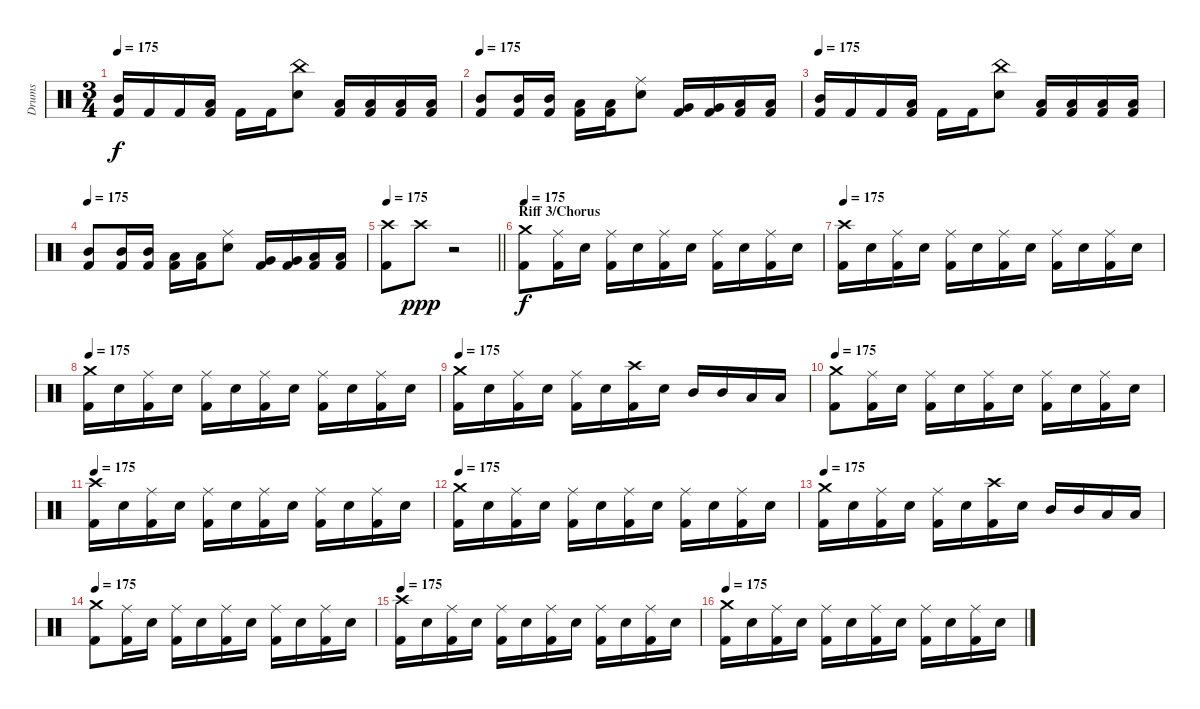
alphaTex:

\track ("Drums" "Drums") {instrument percussion}
\staff {score}
\articulation defaults
\ts (3 4)
\tempo 175
\clef neutral
\ks c
("Mid Tom (hit)" "Kick (hit) 2").16{dy f} "Kick (hit) 2".16 "Kick (hit) 2".16 ("Low Tom (hit)" "Kick (hit) 2").16 "Kick (hit) 2".16 "Kick (hit) 2".16 ("China (hit)" "Electric Snare (hit)").8 ("Low Tom (hit)" "Kick (hit) 2").16 ("Low Tom (hit)" "Kick (hit) 2").16 ("Low Tom (hit)" "Kick (hit) 2").16 ("Low Tom (hit)" "Kick (hit) 2").16 |
\tempo 175
("Mid Tom (hit)" "Kick (hit) 2").8 ("Mid Tom (hit)" "Kick (hit) 2").16 ("Mid Tom (hit)" "Kick (hit) 2").16 ("Low Tom (hit)" "Kick (hit) 2").16 ("Low Tom (hit)" "Kick (hit) 2").16 ("Ride (middle)" "Electric Snare (hit)").8 ("Very Low Tom (hit)" "Kick (hit) 2").16 ("Very Low Tom (hit)" "Kick (hit) 2").16 ("Low Tom (hit)" "Kick (hit) 2").16 ("Low Tom (hit)" "Kick (hit) 2").16 |
\tempo 175
("Mid Tom (hit)" "Kick (hit) 2").16 "Kick (hit) 2".16 "Kick (hit) 2".16 ("Low Tom (hit)" "Kick (hit) 2").16 "Kick (hit) 2".16 "Kick (hit) 2".16 ("China (hit)" "Electric Snare (hit)").8 ("Low Tom (hit)" "Kick (hit) 2").16 ("Low Tom (hit)" "Kick (hit) 2").16 ("Low Tom (hit)" "Kick (hit) 2").16 ("Low Tom (hit)" "Kick (hit) 2").16 |
\tempo 175
("Mid Tom (hit)" "Kick (hit) 2").8 ("Mid Tom (hit)" "Kick (hit) 2").16 ("Mid Tom (hit)" "Kick (hit) 2").16 ("Low Tom (hit)" "Kick (hit) 2").16 ("Low Tom (hit)" "Kick (hit) 2").16 ("Ride (middle)" "Electric Snare (hit)").8 ("Very Low Tom (hit)" "Kick (hit) 2").16 ("Very Low Tom (hit)" "Kick (hit) 2").16 ("Low Tom (hit)" "Kick (hit) 2").16 ("Low Tom (hit)" "Kick (hit) 2").16 |
\tempo 175
\barLineRight lightlight
("Crash high (hit)" "Kick (hit) 2").8 "Crash high (hit)".8{dy ppp} r.2 |
\section ("" "Riff 3/Chorus")
\tempo 175
("Crash medium (hit)" "Kick (hit) 2").8{dy f} ("Ride (middle)" "Kick (hit) 2").16 "Electric Snare (hit)".16 ("Ride (middle)" "Kick (hit) 2").16 "Electric Snare (hit)".16 ("Ride (middle)" "Kick (hit) 2").16 "Electric Snare (hit)".16 ("Ride (middle)" "Kick (hit) 2").16 "Electric Snare (hit)".16 ("Ride (middle)" "Kick (hit) 2").16 "Electric Snare (hit)".16 |
\tempo 175
("Crash high (hit)" "Kick (hit) 2").16 "Electric Snare (hit)".16 ("Ride (middle)" "Kick (hit) 2").16 "Electric Snare (hit)".16 ("Ride (middle)" "Kick (hit) 2").16 "Electric Snare (hit)".16 ("Ride (middle)" "Kick (hit) 2").16 "Electric Snare (hit)".16 ("Ride (middle)" "Kick (hit) 2").16 "Electric Snare (hit)".16 ("Ride (middle)" "Kick (hit) 2").16 "Electric Snare (hit)".16 |
\tempo 175
("Crash medium (hit)" "Kick (hit) 2").16 "Electric Snare (hit)".16 ("Ride (middle)" "Kick (hit) 2").16 "Electric Snare (hit)".16 ("Ride (middle)" "Kick (hit) 2").16 "Electric Snare (hit)".16 ("Ride (middle)" "Kick (hit) 2").16 "Electric Snare (hit)".16 ("Ride (middle)" "Kick (hit) 2").16 "Electric Snare (hit)".16 ("Ride (middle)" "Kick (hit) 2").16 "Electric Snare (hit)".16 |
\tempo 175
("Crash medium (hit)" "Kick (hit) 2").16 "Electric Snare (hit)".16 ("Ride (middle)" "Kick (hit) 2").16 "Electric Snare (hit)".16 ("Ride (middle)" "Kick (hit) 2").16 "Electric Snare (hit)".16 ("Crash high (hit)" "Kick (hit) 2").16 "Electric Snare (hit)".16 "Mid Tom (hit)".16 "Mid Tom (hit)".16 "Low Tom (hit)".16 "Low Tom (hit)".16 |
\tempo 175
("Crash medium (hit)" "Kick (hit) 2").8 ("Ride (middle)" "Kick (hit) 2").16 "Electric Snare (hit)".16 ("Ride (middle)" "Kick (hit) 2").16 "Electric Snare (hit)".16 ("Ride (middle)" "Kick (hit) 2").16 "Electric Snare (hit)".16 ("Ride (middle)" "Kick (hit) 2").16 "Electric Snare (hit)".16 ("Ride (middle)" "Kick (hit) 2").16 "Electric Snare (hit)".16 |
\tempo 175
("Crash high (hit)" "Kick (hit) 2").16 "Electric Snare (hit)".16 ("Ride (middle)" "Kick (hit) 2").16 "Electric Snare (hit)".16 ("Ride (middle)" "Kick (hit) 2").16 "Electric Snare (hit)".16 ("Ride (middle)" "Kick (hit) 2").16 "Electric Snare (hit)".16 ("Ride (middle)" "Kick (hit) 2").16 "Electric Snare (hit)".16 ("Ride (middle)" "Kick (hit) 2").16 "Electric Snare (hit)".16 |
\tempo 175
("Crash medium (hit)" "Kick (hit) 2").16 "Electric Snare (hit)".16 ("Ride (middle)" "Kick (hit) 2").16 "Electric Snare (hit)".16 ("Ride (middle)" "Kick (hit) 2").16 "Electric Snare (hit)".16 ("Ride (middle)" "Kick (hit) 2").16 "Electric Snare (hit)".16 ("Ride (middle)" "Kick (hit) 2").16 "Electric Snare (hit)".16 ("Ride (middle)" "Kick (hit) 2").16 "Electric Snare (hit)".16 |
\tempo 175
("Crash medium (hit)" "Kick (hit) 2").16 "Electric Snare (hit)".16 ("Ride (middle)" "Kick (hit) 2").16 "Electric Snare (hit)".16 ("Ride (middle)" "Kick (hit) 2").16 "Electric Snare (hit)".16 ("Crash high (hit)" "Kick (hit) 2").16 "Electric Snare (hit)".16 "Mid Tom (hit)".16 "Mid Tom (hit)".16 "Low Tom (hit)".16 "Low Tom (hit)".16 |
\tempo 175
("Crash medium (hit)" "Kick (hit) 2").8 ("Ride (middle)" "Kick (hit) 2").16 "Electric Snare (hit)".16 ("Ride (middle)" "Kick (hit) 2").16 "Electric Snare (hit)".16 ("Ride (middle)" "Kick (hit) 2").16 "Electric Snare (hit)".16 ("Ride (middle)" "Kick (hit) 2").16 "Electric Snare (hit)".16 ("Ride (middle)" "Kick (hit) 2").16 "Electric Snare (hit)".16 |
\tempo 175
("Crash high (hit)" "Kick (hit) 2").16 "Electric Snare (hit)".16 ("Ride (middle)" "Kick (hit) 2").16 "Electric Snare (hit)".16 ("Ride (middle)" "Kick (hit) 2").16 "Electric Snare (hit)".16 ("Ride (middle)" "Kick (hit) 2").16 "Electric Snare (hit)".16 ("Ride (middle)" "Kick (hit) 2").16 "Electric Snare (hit)".16 ("Ride (middle)" "Kick (hit) 2").16 "Electric Snare (hit)".16 |
\tempo 175
("Crash medium (hit)" "Kick (hit) 2").16 "Electric Snare (hit)".16 ("Ride (middle)" "Kick (hit) 2").16 "Electric Snare (hit)".16 ("Ride (middle)" "Kick (hit) 2").16 "Electric Snare (hit)".16 ("Ride (middle)" "Kick (hit) 2").16 "Electric Snare (hit)".16 ("Ride (middle)" "Kick (hit) 2").16 "Electric Snare (hit)".16 ("Ride (middle)" "Kick (hit) 2").16 "Electric Snare (hit)".16
